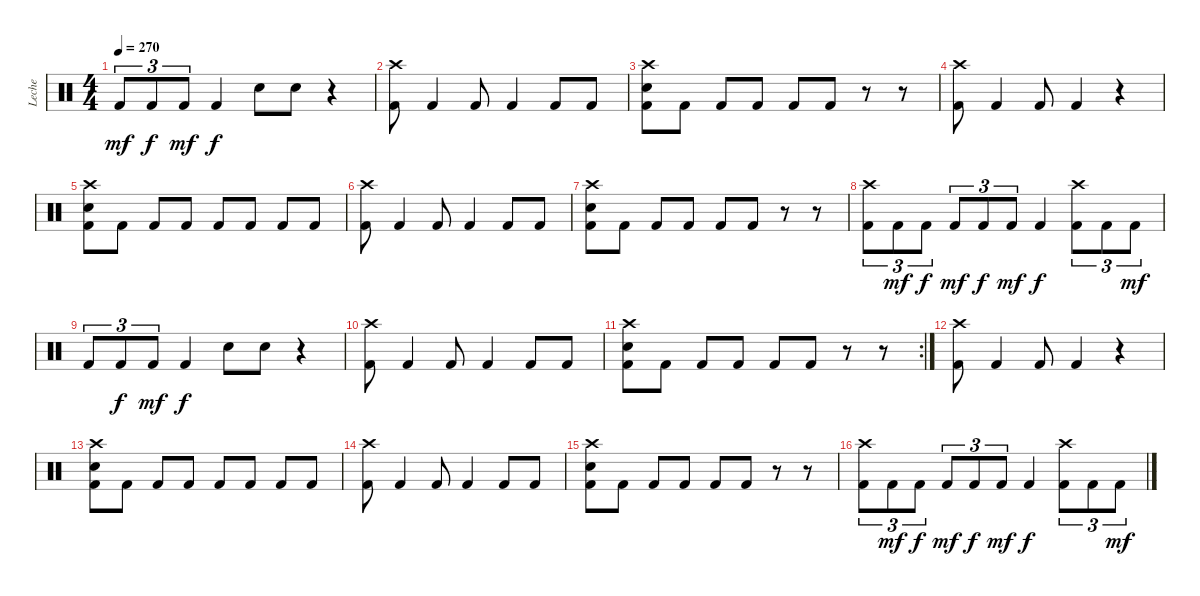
\track ("Leche" "Leche") {instrument percussion}
\staff {score}
\articulation defaults
\ts (4 4)
\tempo 270
\clef neutral
\ks c "Kick (hit) 2".8{tu (3 2) dy mf} "Kick (hit) 2".8{tu (3 2) dy f} "Kick (hit) 2".8{tu (3 2) dy mf} "Kick (hit) 2".4{dy f} "Electric Snare (hit)".8 "Electric Snare (hit)".8
r.4 |
("Crash high (hit)" "Kick (hit) 2").8 "Kick (hit) 2".4 "Kick (hit) 2".8 "Kick (hit) 2".4 "Kick (hit) 2".8 "Kick (hit) 2".8 |
("Crash high (hit)" "Electric Snare (hit)" "Kick (hit) 2").8 "Kick (hit) 2".8 "Kick (hit) 2".8 "Kick (hit) 2".8 "Kick (hit) 2".8 "Kick (hit) 2".8 r.8 r.8 |
("Crash high (hit)" "Kick (hit) 2").8 "Kick (hit) 2".4 "Kick (hit) 2".8 "Kick (hit) 2".4 r.4 |
("Crash high (hit)" "Electric Snare (hit)" "Kick (hit) 2").8 "Kick (hit) 2".8 "Kick (hit) 2".8 "Kick (hit) 2".8 "Kick (hit) 2".8 "Kick (hit) 2".8 "Kick (hit) 2".8 "Kick (hit) 2".8 |
("Crash high (hit)" "Kick (hit) 2").8 "Kick (hit) 2".4 "Kick (hit) 2".8 "Kick (hit) 2".4 "Kick (hit) 2".8 "Kick (hit) 2".8 |
("Crash high (hit)" "Electric Snare (hit)" "Kick (hit) 2").8 "Kick (hit) 2".8 "Kick (hit) 2".8 "Kick (hit) 2".8 "Kick (hit) 2".8 "Kick (hit) 2".8 r.8 r.8 |
("Crash high (hit)" "Kick (hit) 2").8{tu (3 2)} "Kick (hit) 2".8{tu (3 2) dy mf} "Kick (hit) 2".8{tu (3 2) dy f} "Kick (hit) 2".8{tu (3 2) dy mf} "Kick (hit) 2".8{tu (3 2) dy f} "Kick (hit) 2".8{tu (3 2) dy mf} "Kick (hit) 2".4{dy f} ("Crash high (hit)" "Kick (hit) 2").8{tu (3 2)} "Kick (hit) 2".8{tu (3 2)} "Kick (hit) 2".8{tu (3 2) dy mf} |
"Kick (hit) 2".8{tu (3 2)} "Kick (hit) 2".8{tu (3 2) dy f} "Kick (hit) 2".8{tu (3 2) dy mf} "Kick (hit) 2".4{dy f} "Electric Snare (hit)".8 "Electric Snare (hit)".8 r.4 |
("Crash high (hit)" "Kick (hit) 2").8 "Kick (hit) 2".4 "Kick (hit) 2".8 "Kick (hit) 2".4 "Kick (hit) 2".8 "Kick (hit) 2".8 |
\rc 2
("Crash high (hit)" "Electric Snare (hit)" "Kick (hit) 2").8 "Kick (hit) 2".8 "Kick (hit) 2".8 "Kick (hit) 2".8 "Kick (hit) 2".8 "Kick (hit) 2".8 r.8 r.8 |
("Crash high (hit)" "Kick (hit) 2").8{volume 12} "Kick (hit) 2".4 "Kick (hit) 2".8 "Kick (hit) 2".4 r.4 |
("Crash high (hit)" "Electric Snare (hit)" "Kick (hit) 2").8 "Kick (hit) 2".8 "Kick (hit) 2".8 "Kick (hit) 2".8 "Kick (hit) 2".8 "Kick (hit) 2".8 "Kick (hit) 2".8 "Kick (hit) 2".8 |
("Crash high (hit)" "Kick (hit) 2").8 "Kick (hit) 2".4 "Kick (hit) 2".8 "Kick (hit) 2".4 "Kick (hit) 2".8 "Kick (hit) 2".8 |
("Crash high (hit)" "Electric Snare (hit)" "Kick (hit) 2").8 "Kick (hit) 2".8 "Kick (hit) 2".8 "Kick (hit) 2".8 "Kick (hit) 2".8 "Kick (hit) 2".8 r.8 r.8 |
("Crash high (hit)" "Kick (hit) 2").8{tu (3 2)} "Kick (hit) 2".8{tu (3 2) dy mf} "Kick (hit) 2".8{tu (3 2) dy f} "Kick (hit) 2".8{tu (3 2) dy mf} "Kick (hit) 2".8{tu (3 2) dy f} "Kick (hit) 2".8{tu (3 2) dy mf} "Kick (hit) 2".4{dy f} ("Crash high (hit)" "Kick (hit) 2").8{tu (3 2)} "Kick (hit) 2".8{tu (3 2)} "Kick (hit) 2".8{tu (3 2) dy mf}
